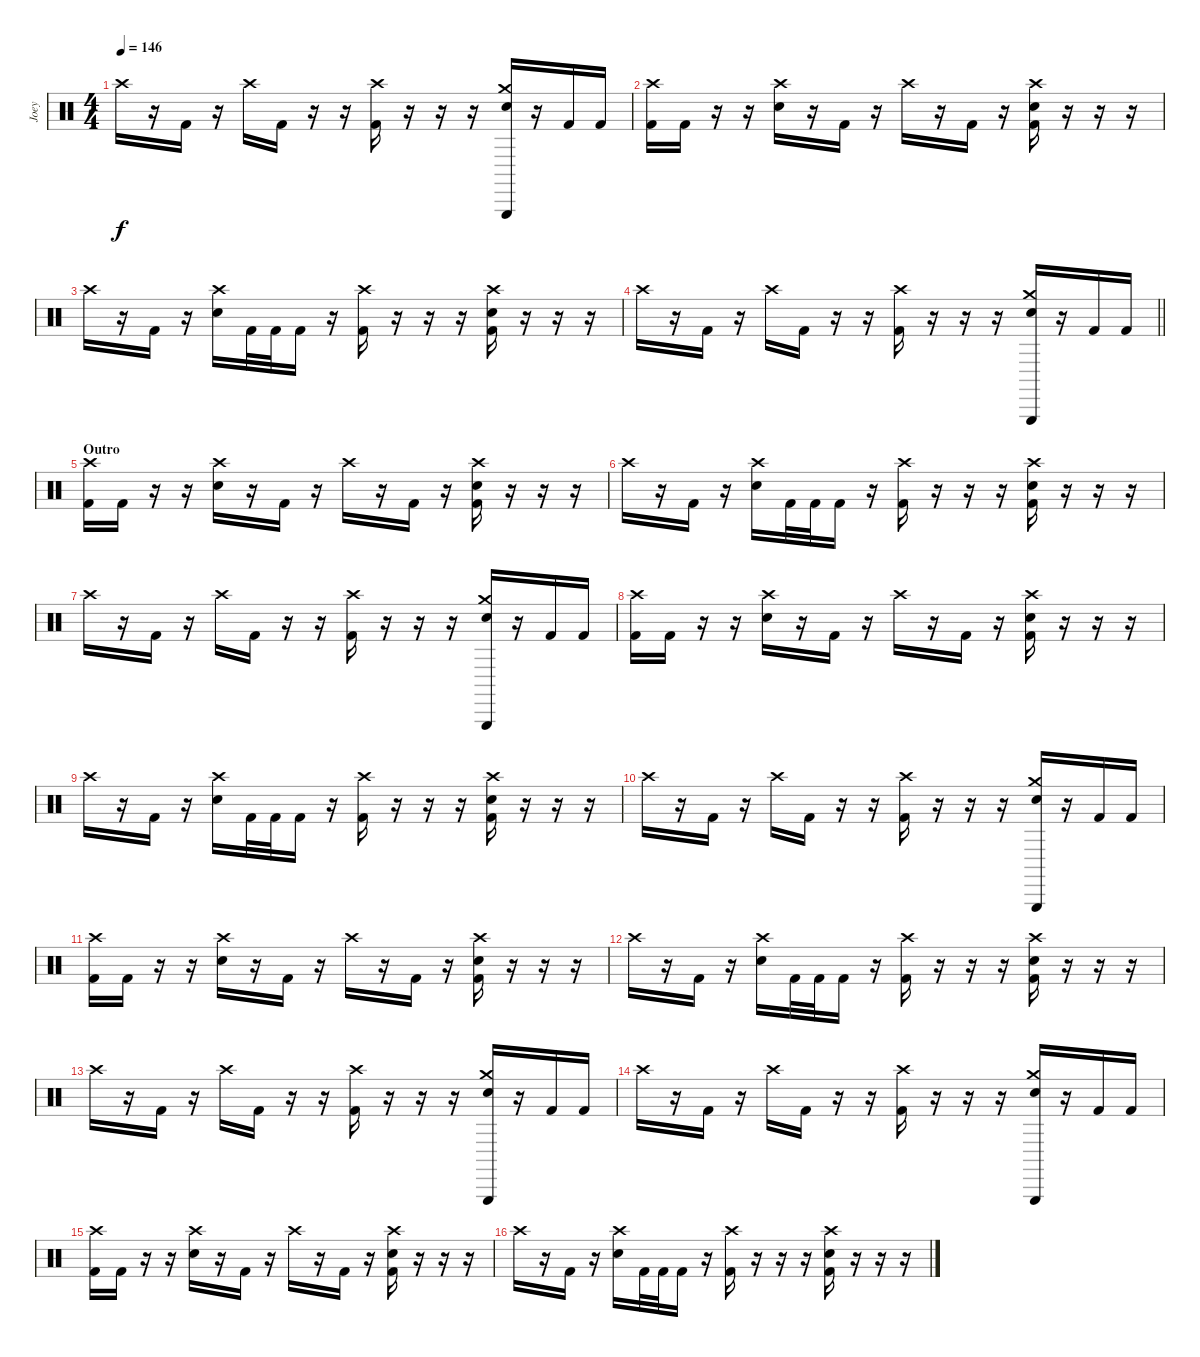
\track ("Joey" "Joey") {instrument percussion}
\staff {score}
\articulation defaults
\ts (4 4)
\tempo 146
\clef neutral
\ks c "Crash high (hit)".16{dy f}
r.16 "Kick (hit) 2".16 r.16 "Crash high (hit)".16 "Kick (hit) 2".16 r.16 r.16 ("Crash high (hit)" "Kick (hit) 2").16 r.16 r.16 r.16 ("Triangle (hit)" "Crash medium (hit)" "Snare (hit) 2").16 r.16 "Kick (hit) 2".16 "Kick (hit) 2".16 |
("Crash high (hit)" "Kick (hit) 2").16 "Kick (hit) 2".16 r.16 r.16 ("Crash high (hit)" "Snare (hit) 2").16 r.16 "Kick (hit) 2".16 r.16 "Crash high (hit)".16 r.16 "Kick (hit) 2".16 r.16 ("Crash high (hit)" "Snare (hit) 2" "Kick (hit) 2").16 r.16 r.16 r.16 |
"Crash high (hit)".16 r.16 "Kick (hit) 2".16 r.16 ("Crash high (hit)" "Snare (hit) 2").16 "Kick (hit) 2".32 "Kick (hit) 2".32 "Kick (hit) 2".16 r.16 ("Crash high (hit)" "Kick (hit) 2").16 r.16 r.16 r.16 ("Crash high (hit)" "Snare (hit) 2" "Kick (hit) 2").16 r.16 r.16 r.16 |
\barLineRight lightlight "Crash high (hit)".16
r.16 "Kick (hit) 2".16 r.16 "Crash high (hit)".16 "Kick (hit) 2".16 r.16 r.16 ("Crash high (hit)" "Kick (hit) 2").16 r.16 r.16 r.16 ("Triangle (hit)" "Crash medium (hit)" "Snare (hit) 2").16 r.16 "Kick (hit) 2".16 "Kick (hit) 2".16 |
\section ("" "Outro")
("Crash high (hit)" "Kick (hit) 2").16 "Kick (hit) 2".16 r.16 r.16 ("Crash high (hit)" "Snare (hit) 2").16 r.16 "Kick (hit) 2".16 r.16 "Crash high (hit)".16 r.16 "Kick (hit) 2".16 r.16 ("Crash high (hit)" "Snare (hit) 2" "Kick (hit) 2").16 r.16 r.16 r.16 |
"Crash high (hit)".16 r.16 "Kick (hit) 2".16 r.16 ("Crash high (hit)" "Snare (hit) 2").16 "Kick (hit) 2".32 "Kick (hit) 2".32 "Kick (hit) 2".16 r.16 ("Crash high (hit)" "Kick (hit) 2").16 r.16 r.16 r.16 ("Crash high (hit)" "Snare (hit) 2" "Kick (hit) 2").16 r.16 r.16 r.16 |
"Crash high (hit)".16 r.16 "Kick (hit) 2".16 r.16 "Crash high (hit)".16 "Kick (hit) 2".16 r.16 r.16 ("Crash high (hit)" "Kick (hit) 2").16 r.16 r.16 r.16 ("Triangle (hit)" "Crash medium (hit)" "Snare (hit) 2").16 r.16 "Kick (hit) 2".16 "Kick (hit) 2".16 |
("Crash high (hit)" "Kick (hit) 2").16 "Kick (hit) 2".16 r.16 r.16 ("Crash high (hit)" "Snare (hit) 2").16 r.16 "Kick (hit) 2".16 r.16 "Crash high (hit)".16 r.16 "Kick (hit) 2".16 r.16 ("Crash high (hit)" "Snare (hit) 2" "Kick (hit) 2").16 r.16 r.16 r.16 |
"Crash high (hit)".16 r.16 "Kick (hit) 2".16 r.16 ("Crash high (hit)" "Snare (hit) 2").16 "Kick (hit) 2".32 "Kick (hit) 2".32 "Kick (hit) 2".16 r.16 ("Crash high (hit)" "Kick (hit) 2").16 r.16 r.16 r.16 ("Crash high (hit)" "Snare (hit) 2" "Kick (hit) 2").16 r.16 r.16 r.16 |
"Crash high (hit)".16 r.16 "Kick (hit) 2".16 r.16 "Crash high (hit)".16 "Kick (hit) 2".16 r.16 r.16 ("Crash high (hit)" "Kick (hit) 2").16 r.16 r.16 r.16 ("Triangle (hit)" "Crash medium (hit)" "Snare (hit) 2").16 r.16 "Kick (hit) 2".16 "Kick (hit) 2".16 |
("Crash high (hit)" "Kick (hit) 2").16 "Kick (hit) 2".16 r.16 r.16 ("Crash high (hit)" "Snare (hit) 2").16 r.16 "Kick (hit) 2".16 r.16 "Crash high (hit)".16 r.16 "Kick (hit) 2".16 r.16 ("Crash high (hit)" "Snare (hit) 2" "Kick (hit) 2").16 r.16 r.16 r.16 |
"Crash high (hit)".16 r.16 "Kick (hit) 2".16 r.16 ("Crash high (hit)" "Snare (hit) 2").16 "Kick (hit) 2".32 "Kick (hit) 2".32 "Kick (hit) 2".16 r.16 ("Crash high (hit)" "Kick (hit) 2").16 r.16 r.16 r.16 ("Crash high (hit)" "Snare (hit) 2" "Kick (hit) 2").16 r.16 r.16 r.16 |
"Crash high (hit)".16 r.16 "Kick (hit) 2".16 r.16 "Crash high (hit)".16 "Kick (hit) 2".16 r.16 r.16 ("Crash high (hit)" "Kick (hit) 2").16 r.16 r.16 r.16 ("Triangle (hit)" "Crash medium (hit)" "Snare (hit) 2").16 r.16 "Kick (hit) 2".16 "Kick (hit) 2".16 |
"Crash high (hit)".16 r.16 "Kick (hit) 2".16 r.16 "Crash high (hit)".16 "Kick (hit) 2".16 r.16 r.16 ("Crash high (hit)" "Kick (hit) 2").16 r.16 r.16 r.16 ("Triangle (hit)" "Crash medium (hit)" "Snare (hit) 2").16 r.16 "Kick (hit) 2".16 "Kick (hit) 2".16 |
("Crash high (hit)" "Kick (hit) 2").16 "Kick (hit) 2".16 r.16 r.16 ("Crash high (hit)" "Snare (hit) 2").16 r.16 "Kick (hit) 2".16 r.16 "Crash high (hit)".16 r.16 "Kick (hit) 2".16 r.16 ("Crash high (hit)" "Snare (hit) 2" "Kick (hit) 2").16 r.16 r.16 r.16 |
"Crash high (hit)".16 r.16 "Kick (hit) 2".16 r.16 ("Crash high (hit)" "Snare (hit) 2").16 "Kick (hit) 2".32 "Kick (hit) 2".32 "Kick (hit) 2".16 r.16 ("Crash high (hit)" "Kick (hit) 2").16 r.16 r.16 r.16 ("Crash high (hit)" "Snare (hit) 2" "Kick (hit) 2").16 r.16 r.16 r.16
